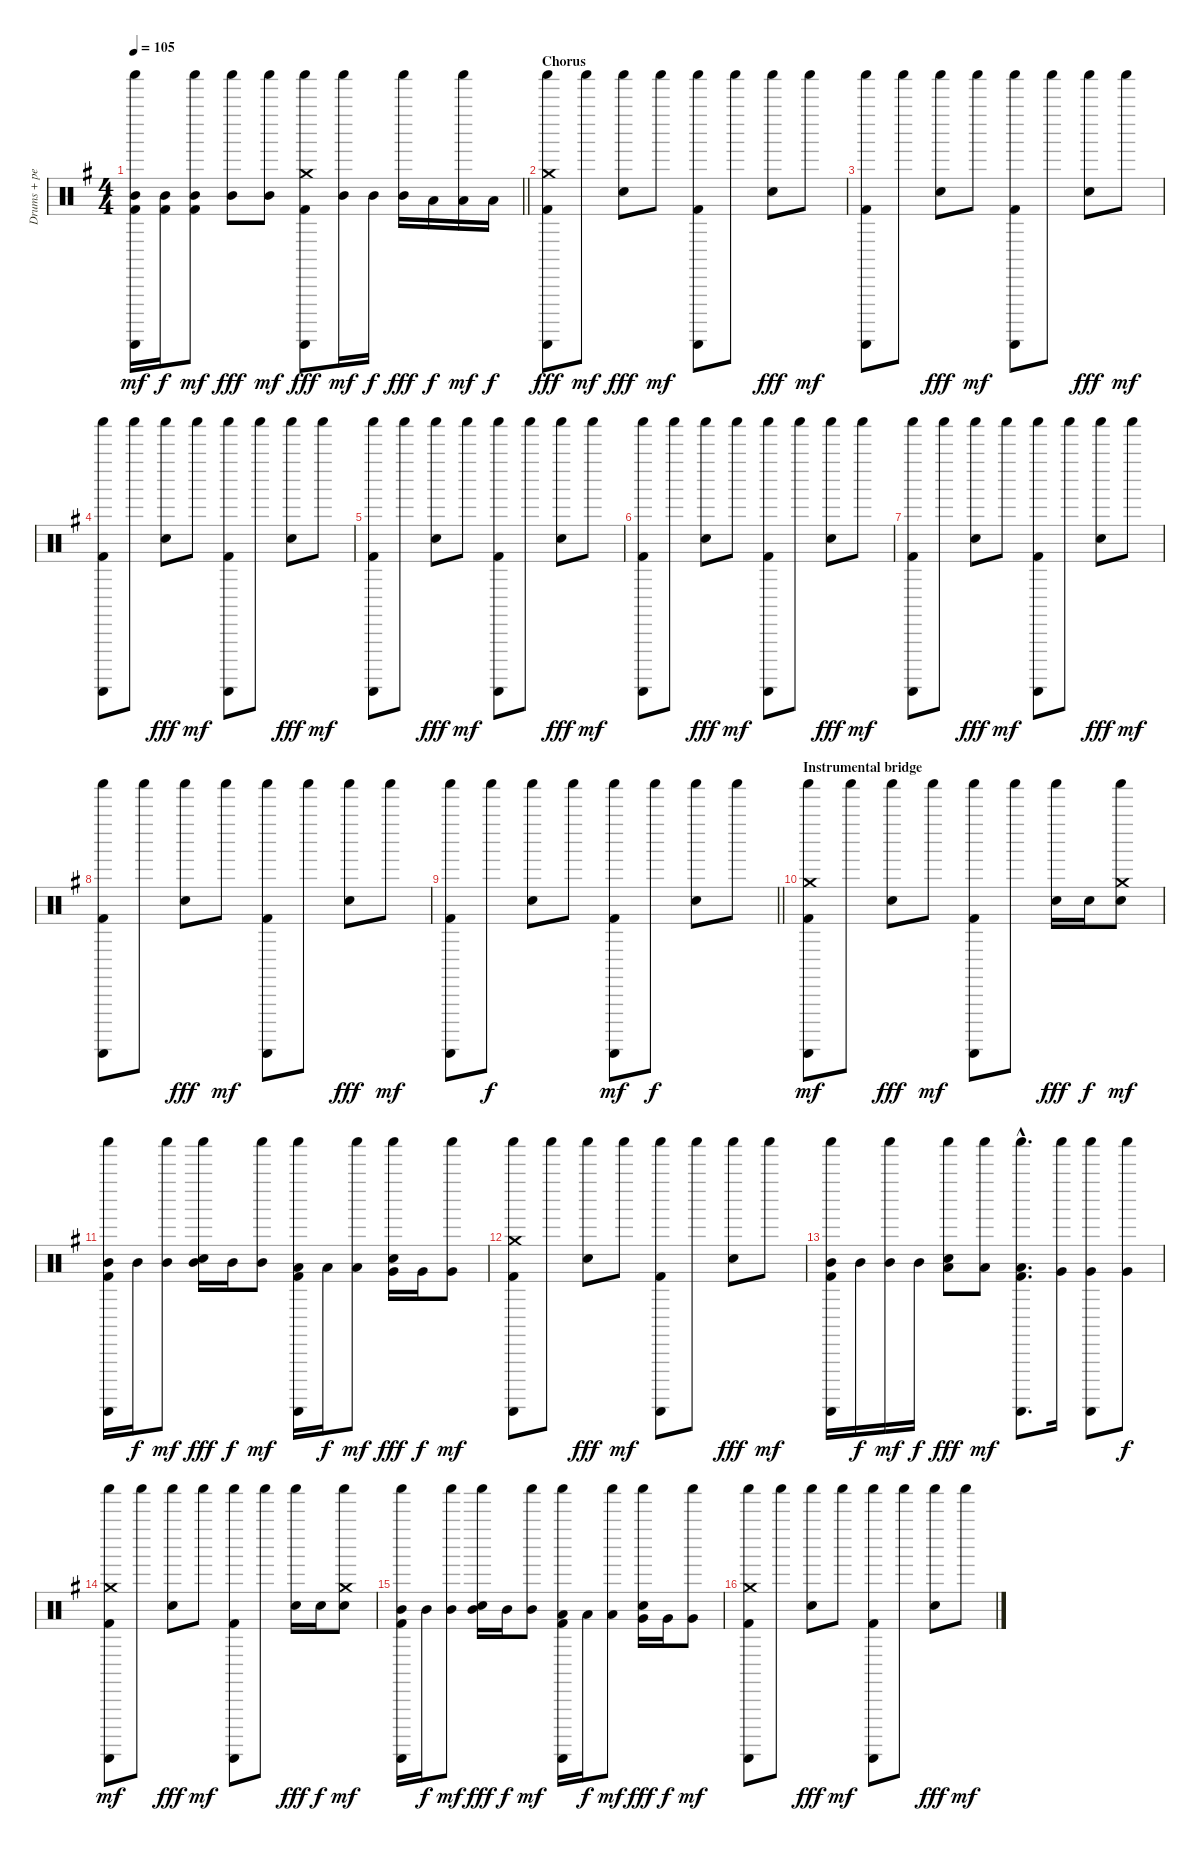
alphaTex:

\track ("Drums + percussion" "Drums + pe") {instrument percussion}
\staff {score}
\articulation defaults
\ts (4 4)
\tempo 105
\clef neutral
\barLineRight lightlight
\ks g
("Shaker (hit)" "Guiro (scrap-return)" "Mid Tom (hit)" "Kick (hit) 2").16{dy mf} ("Mid Tom (hit)" "Kick (hit) 2").16{dy f} ("Shaker (hit)" "Mid Tom (hit)" "Kick (hit) 2").8{dy mf} ("Shaker (hit)" "Mid Tom (hit)").8{dy fff} ("Shaker (hit)" "Mid Tom (hit)").8{dy mf} ("Shaker (hit)" "Guiro (scrap-return)" "Crash medium (hit)" "Kick (hit) 2").8{dy fff} ("Shaker (hit)" "Mid Tom (hit)").16{dy mf} "Mid Tom (hit)".16{dy f} ("Shaker (hit)" "Mid Tom (hit)").16{dy fff} "Low Tom (hit)".16{dy f} ("Shaker (hit)" "Low Tom (hit)").16{dy mf} "Low Tom (hit)".16{dy f} |
\section ("" "Chorus")
("Shaker (hit)" "Guiro (scrap-return)" "Crash medium (hit)" "Kick (hit) 2").8{dy fff} "Shaker (hit)".8{dy mf} ("Shaker (hit)" "Snare (hit) 2").8{dy fff} "Shaker (hit)".8{dy mf} ("Shaker (hit)" "Guiro (scrap-return)" "Kick (hit) 2").8 "Shaker (hit)".8 ("Shaker (hit)" "Snare (hit) 2").8{dy fff} "Shaker (hit)".8{dy mf} |
("Shaker (hit)" "Guiro (scrap-return)" "Kick (hit) 2").8 "Shaker (hit)".8 ("Shaker (hit)" "Snare (hit) 2").8{dy fff} "Shaker (hit)".8{dy mf} ("Shaker (hit)" "Guiro (scrap-return)" "Kick (hit) 2").8 "Shaker (hit)".8 ("Shaker (hit)" "Snare (hit) 2").8{dy fff} "Shaker (hit)".8{dy mf} |
("Shaker (hit)" "Guiro (scrap-return)" "Kick (hit) 2").8 "Shaker (hit)".8 ("Shaker (hit)" "Snare (hit) 2").8{dy fff} "Shaker (hit)".8{dy mf} ("Shaker (hit)" "Guiro (scrap-return)" "Kick (hit) 2").8 "Shaker (hit)".8 ("Shaker (hit)" "Snare (hit) 2").8{dy fff} "Shaker (hit)".8{dy mf} |
("Shaker (hit)" "Guiro (scrap-return)" "Kick (hit) 2").8 "Shaker (hit)".8 ("Shaker (hit)" "Snare (hit) 2").8{dy fff} "Shaker (hit)".8{dy mf} ("Shaker (hit)" "Guiro (scrap-return)" "Kick (hit) 2").8 "Shaker (hit)".8 ("Shaker (hit)" "Snare (hit) 2").8{dy fff} "Shaker (hit)".8{dy mf} |
("Shaker (hit)" "Guiro (scrap-return)" "Kick (hit) 2").8 "Shaker (hit)".8 ("Shaker (hit)" "Snare (hit) 2").8{dy fff} "Shaker (hit)".8{dy mf} ("Shaker (hit)" "Guiro (scrap-return)" "Kick (hit) 2").8 "Shaker (hit)".8 ("Shaker (hit)" "Snare (hit) 2").8{dy fff} "Shaker (hit)".8{dy mf} |
("Shaker (hit)" "Guiro (scrap-return)" "Kick (hit) 2").8 "Shaker (hit)".8 ("Shaker (hit)" "Snare (hit) 2").8{dy fff} "Shaker (hit)".8{dy mf} ("Shaker (hit)" "Guiro (scrap-return)" "Kick (hit) 2").8 "Shaker (hit)".8 ("Shaker (hit)" "Snare (hit) 2").8{dy fff} "Shaker (hit)".8{dy mf} |
("Shaker (hit)" "Guiro (scrap-return)" "Kick (hit) 2").8 "Shaker (hit)".8 ("Shaker (hit)" "Snare (hit) 2").8{dy fff} "Shaker (hit)".8{dy mf} ("Shaker (hit)" "Guiro (scrap-return)" "Kick (hit) 2").8 "Shaker (hit)".8 ("Shaker (hit)" "Snare (hit) 2").8{dy fff} "Shaker (hit)".8{dy mf} |
\barLineRight lightlight
("Shaker (hit)" "Guiro (scrap-return)" "Kick (hit) 2").8 "Shaker (hit)".8{dy f} ("Shaker (hit)" "Snare (hit) 2").8 "Shaker (hit)".8 ("Shaker (hit)" "Guiro (scrap-return)" "Kick (hit) 2").8{dy mf} "Shaker (hit)".8{dy f} ("Shaker (hit)" "Snare (hit) 2").8 "Shaker (hit)".8 |
\section ("" "Instrumental bridge")
("Shaker (hit)" "Guiro (scrap-return)" "Crash medium (hit)" "Kick (hit) 2").8{dy mf} "Shaker (hit)".8 ("Shaker (hit)" "Snare (hit) 2").8{dy fff} "Shaker (hit)".8{dy mf} ("Shaker (hit)" "Guiro (scrap-return)" "Kick (hit) 2").8 "Shaker (hit)".8 ("Shaker (hit)" "Snare (hit) 2").16{dy fff} "Snare (hit) 2".16{dy f} ("Shaker (hit)" "Crash medium (hit)" "Snare (hit) 2").8{dy mf} |
("Shaker (hit)" "Guiro (scrap-return)" "Mid Tom (hit)" "Kick (hit) 2").16 "Mid Tom (hit)".16{dy f} ("Shaker (hit)" "Mid Tom (hit)").8{dy mf} ("Shaker (hit)" "Mid Tom (hit)" "Snare (hit) 2").16{dy fff} "Mid Tom (hit)".16{dy f} ("Shaker (hit)" "Mid Tom (hit)").8{dy mf} ("Shaker (hit)" "Guiro (scrap-return)" "Low Tom (hit)" "Kick (hit) 2").16 "Low Tom (hit)".16{dy f} ("Shaker (hit)" "Low Tom (hit)").8{dy mf} ("Shaker (hit)" "Very Low Tom (hit)" "Snare (hit) 2").16{dy fff} "Very Low Tom (hit)".16{dy f} ("Shaker (hit)" "Very Low Tom (hit)").8{dy mf} |
("Shaker (hit)" "Guiro (scrap-return)" "Crash medium (hit)" "Kick (hit) 2").8 "Shaker (hit)".8 ("Shaker (hit)" "Snare (hit) 2").8{dy fff} "Shaker (hit)".8{dy mf} ("Shaker (hit)" "Guiro (scrap-return)" "Kick (hit) 2").8 "Shaker (hit)".8 ("Shaker (hit)" "Snare (hit) 2").8{dy fff} "Shaker (hit)".8{dy mf} |
("Shaker (hit)" "Guiro (scrap-return)" "Mid Tom (hit)" "Kick (hit) 2").16 "Mid Tom (hit)".16{dy f} ("Shaker (hit)" "Mid Tom (hit)").16{dy mf} "Mid Tom (hit)".16{dy f} ("Shaker (hit)" "Low Tom (hit)" "Snare (hit) 2").8{dy fff} ("Shaker (hit)" "Low Tom (hit)").8{dy mf} ("Shaker (hit)"{hac} "Guiro (scrap-return)"{hac} "Low Tom (hit)"{hac} "Kick (hit) 2"{hac}).8{d} ("Shaker (hit)" "Very Low Tom (hit)").16 ("Shaker (hit)" "Guiro (scrap-return)" "Very Low Tom (hit)").8 ("Shaker (hit)" "Very Low Tom (hit)").8{dy f} |
("Shaker (hit)" "Guiro (scrap-return)" "Crash medium (hit)" "Kick (hit) 2").8{dy mf} "Shaker (hit)".8 ("Shaker (hit)" "Snare (hit) 2").8{dy fff} "Shaker (hit)".8{dy mf} ("Shaker (hit)" "Guiro (scrap-return)" "Kick (hit) 2").8 "Shaker (hit)".8 ("Shaker (hit)" "Snare (hit) 2").16{dy fff} "Snare (hit) 2".16{dy f} ("Shaker (hit)" "Crash medium (hit)" "Snare (hit) 2").8{dy mf} |
("Shaker (hit)" "Guiro (scrap-return)" "Mid Tom (hit)" "Kick (hit) 2").16 "Mid Tom (hit)".16{dy f} ("Shaker (hit)" "Mid Tom (hit)").8{dy mf} ("Shaker (hit)" "Mid Tom (hit)" "Snare (hit) 2").16{dy fff} "Mid Tom (hit)".16{dy f} ("Shaker (hit)" "Mid Tom (hit)").8{dy mf} ("Shaker (hit)" "Guiro (scrap-return)" "Low Tom (hit)" "Kick (hit) 2").16 "Low Tom (hit)".16{dy f} ("Shaker (hit)" "Low Tom (hit)").8{dy mf} ("Shaker (hit)" "Very Low Tom (hit)" "Snare (hit) 2").16{dy fff} "Very Low Tom (hit)".16{dy f} ("Shaker (hit)" "Very Low Tom (hit)").8{dy mf} |
("Shaker (hit)" "Guiro (scrap-return)" "Crash medium (hit)" "Kick (hit) 2").8 "Shaker (hit)".8 ("Shaker (hit)" "Snare (hit) 2").8{dy fff} "Shaker (hit)".8{dy mf} ("Shaker (hit)" "Guiro (scrap-return)" "Kick (hit) 2").8 "Shaker (hit)".8 ("Shaker (hit)" "Snare (hit) 2").8{dy fff} "Shaker (hit)".8{dy mf}
